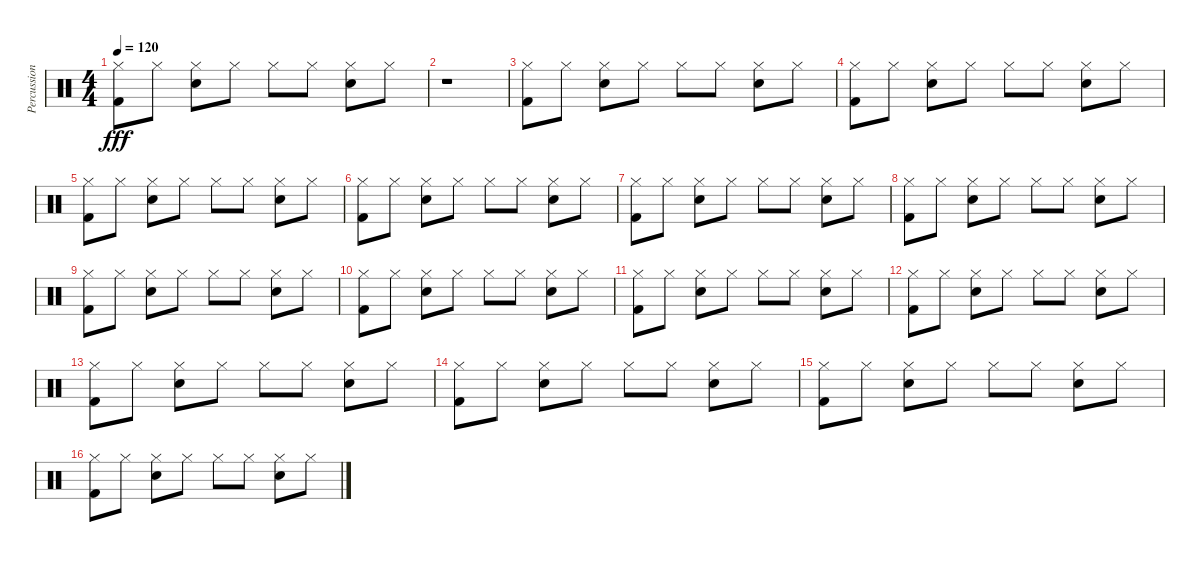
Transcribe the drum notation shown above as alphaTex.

\track ("Percussions" "Percussion") {instrument percussion}
\staff {score}
\articulation defaults
\ts (4 4)
\tempo 120
\clef neutral
\ks c
("Hi-Hat (closed)" "Kick (hit) 2").8{dy fff} "Hi-Hat (closed)".8 ("Hi-Hat (closed)" "Electric Snare (hit)").8 "Hi-Hat (closed)".8 "Hi-Hat (closed)".8 "Hi-Hat (closed)".8 ("Hi-Hat (closed)" "Electric Snare (hit)").8 "Hi-Hat (closed)".8 |
r.1 |
("Hi-Hat (closed)" "Kick (hit) 2").8 "Hi-Hat (closed)".8 ("Hi-Hat (closed)" "Electric Snare (hit)").8 "Hi-Hat (closed)".8 "Hi-Hat (closed)".8 "Hi-Hat (closed)".8 ("Hi-Hat (closed)" "Electric Snare (hit)").8 "Hi-Hat (closed)".8 |
("Hi-Hat (closed)" "Kick (hit) 2").8 "Hi-Hat (closed)".8 ("Hi-Hat (closed)" "Electric Snare (hit)").8 "Hi-Hat (closed)".8 "Hi-Hat (closed)".8 "Hi-Hat (closed)".8 ("Hi-Hat (closed)" "Electric Snare (hit)").8 "Hi-Hat (closed)".8 |
("Hi-Hat (closed)" "Kick (hit) 2").8 "Hi-Hat (closed)".8 ("Hi-Hat (closed)" "Electric Snare (hit)").8 "Hi-Hat (closed)".8 "Hi-Hat (closed)".8 "Hi-Hat (closed)".8 ("Hi-Hat (closed)" "Electric Snare (hit)").8 "Hi-Hat (closed)".8 |
("Hi-Hat (closed)" "Kick (hit) 2").8 "Hi-Hat (closed)".8 ("Hi-Hat (closed)" "Electric Snare (hit)").8 "Hi-Hat (closed)".8 "Hi-Hat (closed)".8 "Hi-Hat (closed)".8 ("Hi-Hat (closed)" "Electric Snare (hit)").8 "Hi-Hat (closed)".8 |
("Hi-Hat (closed)" "Kick (hit) 2").8 "Hi-Hat (closed)".8 ("Hi-Hat (closed)" "Electric Snare (hit)").8 "Hi-Hat (closed)".8 "Hi-Hat (closed)".8 "Hi-Hat (closed)".8 ("Hi-Hat (closed)" "Electric Snare (hit)").8 "Hi-Hat (closed)".8 |
("Hi-Hat (closed)" "Kick (hit) 2").8 "Hi-Hat (closed)".8 ("Hi-Hat (closed)" "Electric Snare (hit)").8 "Hi-Hat (closed)".8 "Hi-Hat (closed)".8 "Hi-Hat (closed)".8 ("Hi-Hat (closed)" "Electric Snare (hit)").8 "Hi-Hat (closed)".8 |
("Hi-Hat (closed)" "Kick (hit) 2").8 "Hi-Hat (closed)".8 ("Hi-Hat (closed)" "Electric Snare (hit)").8 "Hi-Hat (closed)".8 "Hi-Hat (closed)".8 "Hi-Hat (closed)".8 ("Hi-Hat (closed)" "Electric Snare (hit)").8 "Hi-Hat (closed)".8 |
("Hi-Hat (closed)" "Kick (hit) 2").8 "Hi-Hat (closed)".8 ("Hi-Hat (closed)" "Electric Snare (hit)").8 "Hi-Hat (closed)".8 "Hi-Hat (closed)".8 "Hi-Hat (closed)".8 ("Hi-Hat (closed)" "Electric Snare (hit)").8 "Hi-Hat (closed)".8 |
("Hi-Hat (closed)" "Kick (hit) 2").8 "Hi-Hat (closed)".8 ("Hi-Hat (closed)" "Electric Snare (hit)").8 "Hi-Hat (closed)".8 "Hi-Hat (closed)".8 "Hi-Hat (closed)".8 ("Hi-Hat (closed)" "Electric Snare (hit)").8 "Hi-Hat (closed)".8 |
("Hi-Hat (closed)" "Kick (hit) 2").8 "Hi-Hat (closed)".8 ("Hi-Hat (closed)" "Electric Snare (hit)").8 "Hi-Hat (closed)".8 "Hi-Hat (closed)".8 "Hi-Hat (closed)".8 ("Hi-Hat (closed)" "Electric Snare (hit)").8 "Hi-Hat (closed)".8 |
("Hi-Hat (closed)" "Kick (hit) 2").8 "Hi-Hat (closed)".8 ("Hi-Hat (closed)" "Electric Snare (hit)").8 "Hi-Hat (closed)".8 "Hi-Hat (closed)".8 "Hi-Hat (closed)".8 ("Hi-Hat (closed)" "Electric Snare (hit)").8 "Hi-Hat (closed)".8 |
("Hi-Hat (closed)" "Kick (hit) 2").8 "Hi-Hat (closed)".8 ("Hi-Hat (closed)" "Electric Snare (hit)").8 "Hi-Hat (closed)".8 "Hi-Hat (closed)".8 "Hi-Hat (closed)".8 ("Hi-Hat (closed)" "Electric Snare (hit)").8 "Hi-Hat (closed)".8 |
("Hi-Hat (closed)" "Kick (hit) 2").8 "Hi-Hat (closed)".8 ("Hi-Hat (closed)" "Electric Snare (hit)").8 "Hi-Hat (closed)".8 "Hi-Hat (closed)".8 "Hi-Hat (closed)".8 ("Hi-Hat (closed)" "Electric Snare (hit)").8 "Hi-Hat (closed)".8 |
("Hi-Hat (closed)" "Kick (hit) 2").8 "Hi-Hat (closed)".8 ("Hi-Hat (closed)" "Electric Snare (hit)").8 "Hi-Hat (closed)".8 "Hi-Hat (closed)".8 "Hi-Hat (closed)".8 ("Hi-Hat (closed)" "Electric Snare (hit)").8 "Hi-Hat (closed)".8
